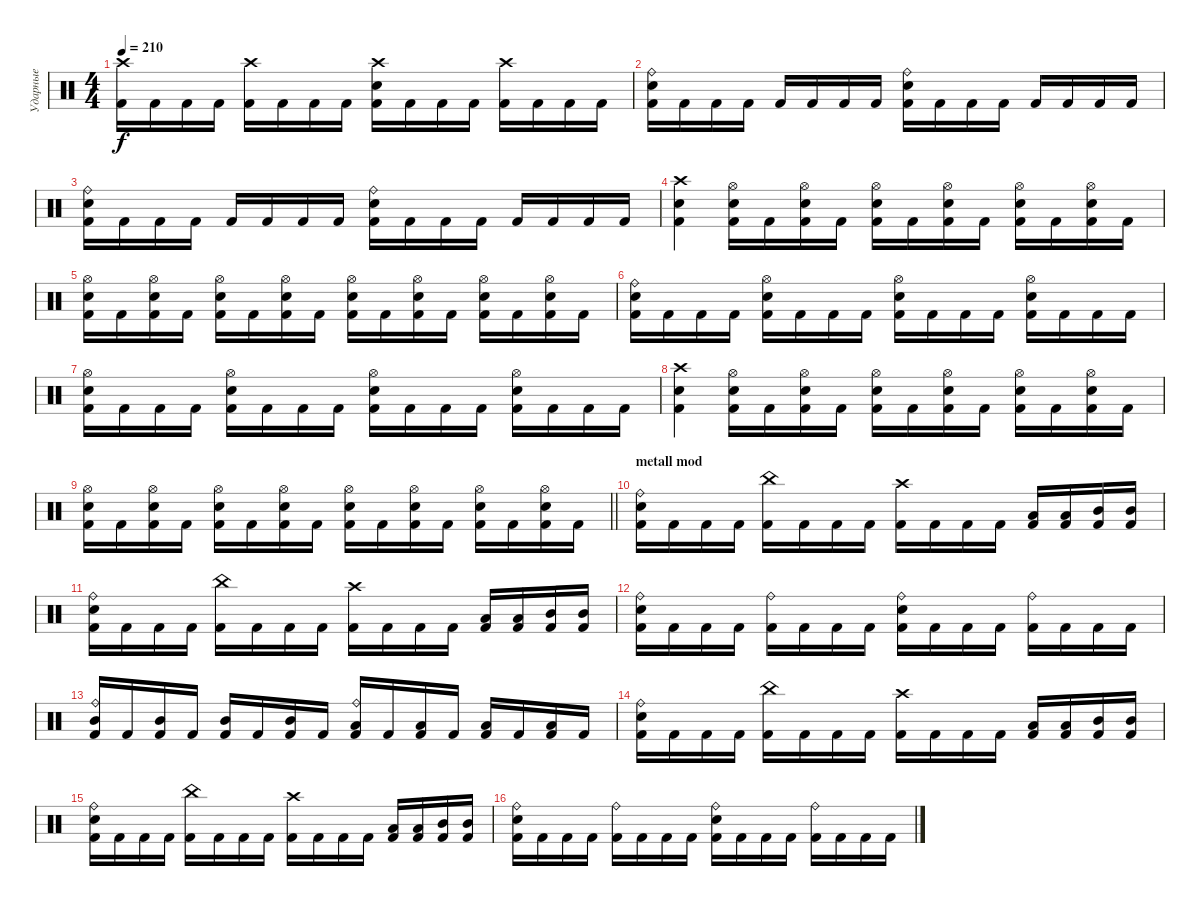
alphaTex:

\track ("Ударные" "Ударные") {instrument percussion}
\staff {score}
\articulation defaults
\ts (4 4)
\tempo 210
\clef neutral
\ks c
("Crash high (hit)" "Kick (hit) 2").16{dy f} "Kick (hit) 2".16 "Kick (hit) 2".16 "Kick (hit) 2".16 ("Crash high (hit)" "Kick (hit) 2").16 "Kick (hit) 2".16 "Kick (hit) 2".16 "Kick (hit) 2".16 ("Crash high (hit)" "Snare (hit) 2" "Kick (hit) 2").16 "Kick (hit) 2".16 "Kick (hit) 2".16 "Kick (hit) 2".16 ("Crash high (hit)" "Kick (hit) 2").16 "Kick (hit) 2".16 "Kick (hit) 2".16 "Kick (hit) 2".16 |
("Ride (bell)" "Snare (hit) 2" "Kick (hit) 2").16 "Kick (hit) 2".16 "Kick (hit) 2".16 "Kick (hit) 2".16 "Kick (hit) 2".16 "Kick (hit) 2".16 "Kick (hit) 2".16 "Kick (hit) 2".16 ("Ride (bell)" "Snare (hit) 2" "Kick (hit) 2").16 "Kick (hit) 2".16 "Kick (hit) 2".16 "Kick (hit) 2".16 "Kick (hit) 2".16 "Kick (hit) 2".16 "Kick (hit) 2".16 "Kick (hit) 2".16 |
("Ride (bell)" "Snare (hit) 2" "Kick (hit) 2").16 "Kick (hit) 2".16 "Kick (hit) 2".16 "Kick (hit) 2".16 "Kick (hit) 2".16 "Kick (hit) 2".16 "Kick (hit) 2".16 "Kick (hit) 2".16 ("Ride (bell)" "Snare (hit) 2" "Kick (hit) 2").16 "Kick (hit) 2".16 "Kick (hit) 2".16 "Kick (hit) 2".16 "Kick (hit) 2".16 "Kick (hit) 2".16 "Kick (hit) 2".16 "Kick (hit) 2".16 |
("Crash high (hit)" "Snare (hit) 2" "Kick (hit) 2").4 ("Hi-Hat (open)" "Snare (hit) 2" "Kick (hit) 2").16 "Kick (hit) 2".16 ("Hi-Hat (open)" "Snare (hit) 2" "Kick (hit) 2").16 "Kick (hit) 2".16 ("Hi-Hat (open)" "Snare (hit) 2" "Kick (hit) 2").16 "Kick (hit) 2".16 ("Hi-Hat (open)" "Snare (hit) 2" "Kick (hit) 2").16 "Kick (hit) 2".16 ("Hi-Hat (open)" "Snare (hit) 2" "Kick (hit) 2").16 "Kick (hit) 2".16 ("Hi-Hat (open)" "Snare (hit) 2" "Kick (hit) 2").16 "Kick (hit) 2".16 |
("Hi-Hat (open)" "Snare (hit) 2" "Kick (hit) 2").16 "Kick (hit) 2".16 ("Hi-Hat (open)" "Snare (hit) 2" "Kick (hit) 2").16 "Kick (hit) 2".16 ("Hi-Hat (open)" "Snare (hit) 2" "Kick (hit) 2").16 "Kick (hit) 2".16 ("Hi-Hat (open)" "Snare (hit) 2" "Kick (hit) 2").16 "Kick (hit) 2".16 ("Hi-Hat (open)" "Snare (hit) 2" "Kick (hit) 2").16 "Kick (hit) 2".16 ("Hi-Hat (open)" "Snare (hit) 2" "Kick (hit) 2").16 "Kick (hit) 2".16 ("Hi-Hat (open)" "Snare (hit) 2" "Kick (hit) 2").16 "Kick (hit) 2".16 ("Hi-Hat (open)" "Snare (hit) 2" "Kick (hit) 2").16 "Kick (hit) 2".16 |
("Ride (bell)" "Snare (hit) 2" "Kick (hit) 2").16 "Kick (hit) 2".16 "Kick (hit) 2".16 "Kick (hit) 2".16 ("Hi-Hat (open)" "Snare (hit) 2" "Kick (hit) 2").16 "Kick (hit) 2".16 "Kick (hit) 2".16 "Kick (hit) 2".16 ("Hi-Hat (open)" "Snare (hit) 2" "Kick (hit) 2").16 "Kick (hit) 2".16 "Kick (hit) 2".16 "Kick (hit) 2".16 ("Hi-Hat (open)" "Snare (hit) 2" "Kick (hit) 2").16 "Kick (hit) 2".16 "Kick (hit) 2".16 "Kick (hit) 2".16 |
("Hi-Hat (open)" "Snare (hit) 2" "Kick (hit) 2").16 "Kick (hit) 2".16 "Kick (hit) 2".16 "Kick (hit) 2".16 ("Hi-Hat (open)" "Snare (hit) 2" "Kick (hit) 2").16 "Kick (hit) 2".16 "Kick (hit) 2".16 "Kick (hit) 2".16 ("Hi-Hat (open)" "Snare (hit) 2" "Kick (hit) 2").16 "Kick (hit) 2".16 "Kick (hit) 2".16 "Kick (hit) 2".16 ("Hi-Hat (open)" "Snare (hit) 2" "Kick (hit) 2").16 "Kick (hit) 2".16 "Kick (hit) 2".16 "Kick (hit) 2".16 |
("Crash high (hit)" "Snare (hit) 2" "Kick (hit) 2").4 ("Hi-Hat (open)" "Snare (hit) 2" "Kick (hit) 2").16 "Kick (hit) 2".16 ("Hi-Hat (open)" "Snare (hit) 2" "Kick (hit) 2").16 "Kick (hit) 2".16 ("Hi-Hat (open)" "Snare (hit) 2" "Kick (hit) 2").16 "Kick (hit) 2".16 ("Hi-Hat (open)" "Snare (hit) 2" "Kick (hit) 2").16 "Kick (hit) 2".16 ("Hi-Hat (open)" "Snare (hit) 2" "Kick (hit) 2").16 "Kick (hit) 2".16 ("Hi-Hat (open)" "Snare (hit) 2" "Kick (hit) 2").16 "Kick (hit) 2".16 |
\barLineRight lightlight
("Hi-Hat (open)" "Snare (hit) 2" "Kick (hit) 2").16 "Kick (hit) 2".16 ("Hi-Hat (open)" "Snare (hit) 2" "Kick (hit) 2").16 "Kick (hit) 2".16 ("Hi-Hat (open)" "Snare (hit) 2" "Kick (hit) 2").16 "Kick (hit) 2".16 ("Hi-Hat (open)" "Snare (hit) 2" "Kick (hit) 2").16 "Kick (hit) 2".16 ("Hi-Hat (open)" "Snare (hit) 2" "Kick (hit) 2").16 "Kick (hit) 2".16 ("Hi-Hat (open)" "Snare (hit) 2" "Kick (hit) 2").16 "Kick (hit) 2".16 ("Hi-Hat (open)" "Snare (hit) 2" "Kick (hit) 2").16 "Kick (hit) 2".16 ("Hi-Hat (open)" "Snare (hit) 2" "Kick (hit) 2").16 "Kick (hit) 2".16 |
\section ("" "metall mod")
("Ride (bell)" "Snare (hit) 2" "Kick (hit) 2").16 "Kick (hit) 2".16 "Kick (hit) 2".16 "Kick (hit) 2".16 ("China (hit)" "Kick (hit) 2").16 "Kick (hit) 2".16 "Kick (hit) 2".16 "Kick (hit) 2".16 ("Crash high (hit)" "Kick (hit) 2").16 "Kick (hit) 2".16 "Kick (hit) 2".16 "Kick (hit) 2".16 ("Low Tom (hit)" "Kick (hit) 2").16 ("Low Tom (hit)" "Kick (hit) 2").16 ("Mid Tom (hit)" "Kick (hit) 2").16 ("Mid Tom (hit)" "Kick (hit) 2").16 |
("Ride (bell)" "Snare (hit) 2" "Kick (hit) 2").16 "Kick (hit) 2".16 "Kick (hit) 2".16 "Kick (hit) 2".16 ("China (hit)" "Kick (hit) 2").16 "Kick (hit) 2".16 "Kick (hit) 2".16 "Kick (hit) 2".16 ("Crash high (hit)" "Kick (hit) 2").16 "Kick (hit) 2".16 "Kick (hit) 2".16 "Kick (hit) 2".16 ("Low Tom (hit)" "Kick (hit) 2").16 ("Low Tom (hit)" "Kick (hit) 2").16 ("Mid Tom (hit)" "Kick (hit) 2").16 ("Mid Tom (hit)" "Kick (hit) 2").16 |
("Ride (bell)" "Snare (hit) 2" "Kick (hit) 2").16 "Kick (hit) 2".16 "Kick (hit) 2".16 "Kick (hit) 2".16 ("Ride (bell)" "Kick (hit) 2").16 "Kick (hit) 2".16 "Kick (hit) 2".16 "Kick (hit) 2".16 ("Ride (bell)" "Snare (hit) 2" "Kick (hit) 2").16 "Kick (hit) 2".16 "Kick (hit) 2".16 "Kick (hit) 2".16 ("Ride (bell)" "Kick (hit) 2").16 "Kick (hit) 2".16 "Kick (hit) 2".16 "Kick (hit) 2".16 |
("Ride (bell)" "Mid Tom (hit)" "Kick (hit) 2").16 "Kick (hit) 2".16 ("Mid Tom (hit)" "Kick (hit) 2").16 "Kick (hit) 2".16 ("Mid Tom (hit)" "Kick (hit) 2").16 "Kick (hit) 2".16 ("Mid Tom (hit)" "Kick (hit) 2").16 "Kick (hit) 2".16 ("Ride (bell)" "Low Tom (hit)" "Kick (hit) 2").16 "Kick (hit) 2".16 ("Low Tom (hit)" "Kick (hit) 2").16 "Kick (hit) 2".16 ("Low Tom (hit)" "Kick (hit) 2").16 "Kick (hit) 2".16 ("Low Tom (hit)" "Kick (hit) 2").16 "Kick (hit) 2".16 |
("Ride (bell)" "Snare (hit) 2" "Kick (hit) 2").16 "Kick (hit) 2".16 "Kick (hit) 2".16 "Kick (hit) 2".16 ("China (hit)" "Kick (hit) 2").16 "Kick (hit) 2".16 "Kick (hit) 2".16 "Kick (hit) 2".16 ("Crash high (hit)" "Kick (hit) 2").16 "Kick (hit) 2".16 "Kick (hit) 2".16 "Kick (hit) 2".16 ("Low Tom (hit)" "Kick (hit) 2").16 ("Low Tom (hit)" "Kick (hit) 2").16 ("Mid Tom (hit)" "Kick (hit) 2").16 ("Mid Tom (hit)" "Kick (hit) 2").16 |
("Ride (bell)" "Snare (hit) 2" "Kick (hit) 2").16 "Kick (hit) 2".16 "Kick (hit) 2".16 "Kick (hit) 2".16 ("China (hit)" "Kick (hit) 2").16 "Kick (hit) 2".16 "Kick (hit) 2".16 "Kick (hit) 2".16 ("Crash high (hit)" "Kick (hit) 2").16 "Kick (hit) 2".16 "Kick (hit) 2".16 "Kick (hit) 2".16 ("Low Tom (hit)" "Kick (hit) 2").16 ("Low Tom (hit)" "Kick (hit) 2").16 ("Mid Tom (hit)" "Kick (hit) 2").16 ("Mid Tom (hit)" "Kick (hit) 2").16 |
("Ride (bell)" "Snare (hit) 2" "Kick (hit) 2").16 "Kick (hit) 2".16 "Kick (hit) 2".16 "Kick (hit) 2".16 ("Ride (bell)" "Kick (hit) 2").16 "Kick (hit) 2".16 "Kick (hit) 2".16 "Kick (hit) 2".16 ("Ride (bell)" "Snare (hit) 2" "Kick (hit) 2").16 "Kick (hit) 2".16 "Kick (hit) 2".16 "Kick (hit) 2".16 ("Ride (bell)" "Kick (hit) 2").16 "Kick (hit) 2".16 "Kick (hit) 2".16 "Kick (hit) 2".16
